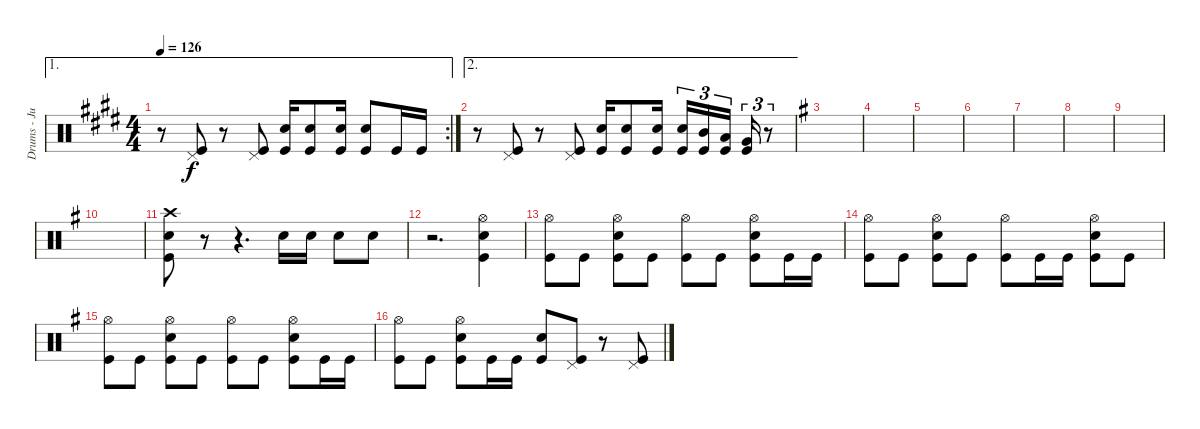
\track ("Drums - Jukka" "Drums - Ju") {instrument percussion}
\staff {score}
\articulation defaults
\ae 1
\rc 2
\ts (4 4)
\tempo 126
\clef neutral
\ks c#minor
r.8{dy f} ("Kick (hit)" "Pedal Hi-Hat (hit)").8 r.8 ("Kick (hit)" "Pedal Hi-Hat (hit)").8 ("Kick (hit)" "Snare (hit) 2").16 ("Kick (hit)" "Snare (hit) 2").8 ("Kick (hit)" "Snare (hit) 2").16 ("Kick (hit)" "Snare (hit) 2").8 "Kick (hit)".16 "Kick (hit)".16 |
\ae 2
r.8 ("Kick (hit)" "Pedal Hi-Hat (hit)").8 r.8 ("Kick (hit)" "Pedal Hi-Hat (hit)").8 ("Kick (hit)" "Snare (hit) 2").16 ("Kick (hit)" "Snare (hit) 2").8 ("Kick (hit)" "Snare (hit) 2").16 ("Kick (hit)" "Snare (hit) 2").16{tu (3 2)} ("Kick (hit)" "Mid Tom (hit)").16{tu (3 2)} ("Kick (hit)" "Low Tom (hit)").16{tu (3 2) beam splitsecondary} ("Kick (hit)" "Very Low Tom (hit)").16{tu (3 2)} r.8{tu (3 2)} |
\ks eminor
|
|
|
|
|
|
|
|
("Kick (hit)" "Snare (hit) 2" "Crash high (hit)").8 r.8 r.4{d} "Snare (hit) 2".16 "Snare (hit) 2".16 "Snare (hit) 2".8 "Snare (hit) 2".8 |
r.2{d} ("Snare (hit) 2" "Hi-Hat (open)" "Kick (hit)").4 |
("Kick (hit)" "Hi-Hat (open)").8 "Kick (hit)".8 ("Kick (hit)" "Snare (hit) 2" "Hi-Hat (open)").8 "Kick (hit)".8 ("Kick (hit)" "Hi-Hat (open)").8 "Kick (hit)".8 ("Kick (hit)" "Snare (hit) 2" "Hi-Hat (open)").8 "Kick (hit)".16 "Kick (hit)".16 |
("Kick (hit)" "Hi-Hat (open)").8 "Kick (hit)".8 ("Kick (hit)" "Snare (hit) 2" "Hi-Hat (open)").8 "Kick (hit)".8 ("Kick (hit)" "Hi-Hat (open)").8 "Kick (hit)".16 "Kick (hit)".16 ("Kick (hit)" "Snare (hit) 2" "Hi-Hat (open)").8 "Kick (hit)".8 |
("Kick (hit)" "Hi-Hat (open)").8 "Kick (hit)".8 ("Kick (hit)" "Snare (hit) 2" "Hi-Hat (open)").8 "Kick (hit)".8 ("Kick (hit)" "Hi-Hat (open)").8 "Kick (hit)".8 ("Kick (hit)" "Snare (hit) 2" "Hi-Hat (open)").8 "Kick (hit)".16 "Kick (hit)".16 |
("Kick (hit)" "Hi-Hat (open)").8 "Kick (hit)".8 ("Kick (hit)" "Snare (hit) 2" "Hi-Hat (open)").8 "Kick (hit)".16 "Kick (hit)".16 ("Kick (hit)" "Snare (hit) 2").8 ("Kick (hit)" "Pedal Hi-Hat (hit)").8 r.8 ("Kick (hit)" "Pedal Hi-Hat (hit)").8
